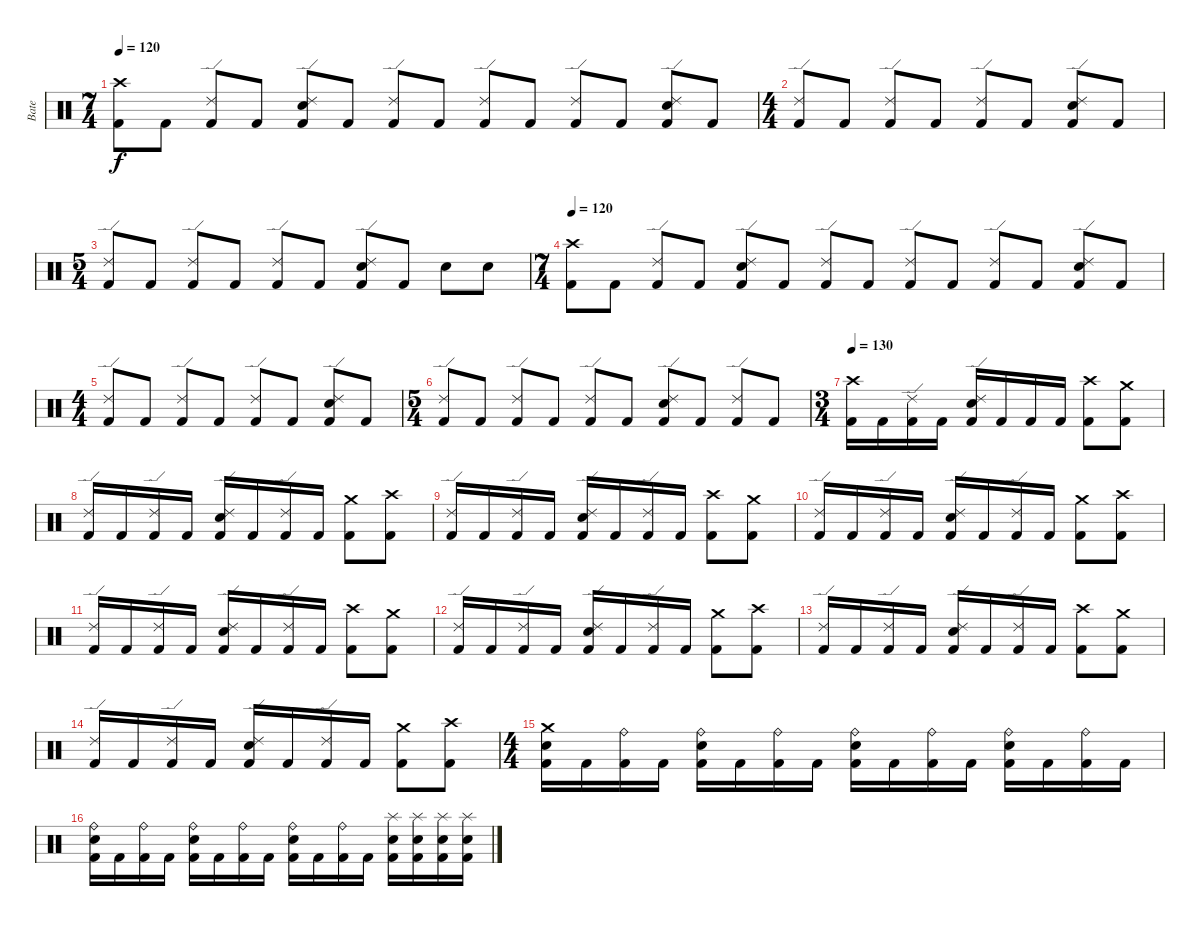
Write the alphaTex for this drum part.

\track ("Bate" "Bate") {instrument percussion}
\staff {score}
\articulation defaults
\ts (7 4)
\tempo 120
\clef neutral
\ks c
("Crash high (hit)" "Kick (hit) 2").8{dy f} "Kick (hit) 2".8 ("Ride (edge) 2" "Kick (hit) 2").8 "Kick (hit) 2".8 ("Ride (edge) 2" "Snare (hit) 2" "Kick (hit) 2").8 "Kick (hit) 2".8 ("Ride (edge) 2" "Kick (hit) 2").8 "Kick (hit) 2".8 ("Ride (edge) 2" "Kick (hit) 2").8 "Kick (hit) 2".8 ("Ride (edge) 2" "Kick (hit) 2").8 "Kick (hit) 2".8 ("Ride (edge) 2" "Snare (hit) 2" "Kick (hit) 2").8 "Kick (hit) 2".8 |
\ts (4 4)
("Ride (edge) 2" "Kick (hit) 2").8 "Kick (hit) 2".8 ("Ride (edge) 2" "Kick (hit) 2").8 "Kick (hit) 2".8 ("Ride (edge) 2" "Kick (hit) 2").8 "Kick (hit) 2".8 ("Ride (edge) 2" "Snare (hit) 2" "Kick (hit) 2").8 "Kick (hit) 2".8 |
\ts (5 4)
("Ride (edge) 2" "Kick (hit) 2").8 "Kick (hit) 2".8 ("Ride (edge) 2" "Kick (hit) 2").8 "Kick (hit) 2".8 ("Ride (edge) 2" "Kick (hit) 2").8 "Kick (hit) 2".8 ("Ride (edge) 2" "Snare (hit) 2" "Kick (hit) 2").8 "Kick (hit) 2".8 "Snare (hit) 2".8 "Snare (hit) 2".8 |
\ts (7 4)
\tempo 120
("Crash high (hit)" "Kick (hit) 2").8 "Kick (hit) 2".8 ("Ride (edge) 2" "Kick (hit) 2").8 "Kick (hit) 2".8 ("Ride (edge) 2" "Snare (hit) 2" "Kick (hit) 2").8 "Kick (hit) 2".8 ("Ride (edge) 2" "Kick (hit) 2").8 "Kick (hit) 2".8 ("Ride (edge) 2" "Kick (hit) 2").8 "Kick (hit) 2".8 ("Ride (edge) 2" "Kick (hit) 2").8 "Kick (hit) 2".8 ("Ride (edge) 2" "Snare (hit) 2" "Kick (hit) 2").8 "Kick (hit) 2".8 |
\ts (4 4)
("Ride (edge) 2" "Kick (hit) 2").8 "Kick (hit) 2".8 ("Ride (edge) 2" "Kick (hit) 2").8 "Kick (hit) 2".8 ("Ride (edge) 2" "Kick (hit) 2").8 "Kick (hit) 2".8 ("Ride (edge) 2" "Snare (hit) 2" "Kick (hit) 2").8 "Kick (hit) 2".8 |
\ts (5 4)
("Ride (edge) 2" "Kick (hit) 2").8 "Kick (hit) 2".8 ("Ride (edge) 2" "Kick (hit) 2").8 "Kick (hit) 2".8 ("Ride (edge) 2" "Kick (hit) 2").8 "Kick (hit) 2".8 ("Ride (edge) 2" "Snare (hit) 2" "Kick (hit) 2").8 "Kick (hit) 2".8 ("Ride (edge) 2" "Kick (hit) 2").8 "Kick (hit) 2".8 |
\ts (3 4)
\tempo 130
("Crash high (hit)" "Kick (hit) 2").16 "Kick (hit) 2".16 ("Ride (edge) 2" "Kick (hit) 2").16 "Kick (hit) 2".16 ("Ride (edge) 2" "Snare (hit) 2" "Kick (hit) 2").16 "Kick (hit) 2".16 "Kick (hit) 2".16 "Kick (hit) 2".16 ("Crash high (hit)" "Kick (hit) 2").8 ("Crash medium (hit)" "Kick (hit) 2").8 |
("Ride (edge) 2" "Kick (hit) 2").16 "Kick (hit) 2".16 ("Ride (edge) 2" "Kick (hit) 2").16 "Kick (hit) 2".16 ("Ride (edge) 2" "Snare (hit) 2" "Kick (hit) 2").16 "Kick (hit) 2".16 ("Ride (edge) 2" "Kick (hit) 2").16 "Kick (hit) 2".16 ("Crash medium (hit)" "Kick (hit) 2").8 ("Crash high (hit)" "Kick (hit) 2").8 |
("Ride (edge) 2" "Kick (hit) 2").16 "Kick (hit) 2".16 ("Ride (edge) 2" "Kick (hit) 2").16 "Kick (hit) 2".16 ("Ride (edge) 2" "Snare (hit) 2" "Kick (hit) 2").16 "Kick (hit) 2".16 ("Ride (edge) 2" "Kick (hit) 2").16 "Kick (hit) 2".16 ("Crash high (hit)" "Kick (hit) 2").8 ("Crash medium (hit)" "Kick (hit) 2").8 |
("Ride (edge) 2" "Kick (hit) 2").16 "Kick (hit) 2".16 ("Ride (edge) 2" "Kick (hit) 2").16 "Kick (hit) 2".16 ("Ride (edge) 2" "Snare (hit) 2" "Kick (hit) 2").16 "Kick (hit) 2".16 ("Ride (edge) 2" "Kick (hit) 2").16 "Kick (hit) 2".16 ("Crash medium (hit)" "Kick (hit) 2").8 ("Crash high (hit)" "Kick (hit) 2").8 |
("Ride (edge) 2" "Kick (hit) 2").16 "Kick (hit) 2".16 ("Ride (edge) 2" "Kick (hit) 2").16 "Kick (hit) 2".16 ("Ride (edge) 2" "Snare (hit) 2" "Kick (hit) 2").16 "Kick (hit) 2".16 ("Ride (edge) 2" "Kick (hit) 2").16 "Kick (hit) 2".16 ("Crash high (hit)" "Kick (hit) 2").8 ("Crash medium (hit)" "Kick (hit) 2").8 |
("Ride (edge) 2" "Kick (hit) 2").16 "Kick (hit) 2".16 ("Ride (edge) 2" "Kick (hit) 2").16 "Kick (hit) 2".16 ("Ride (edge) 2" "Snare (hit) 2" "Kick (hit) 2").16 "Kick (hit) 2".16 ("Ride (edge) 2" "Kick (hit) 2").16 "Kick (hit) 2".16 ("Crash medium (hit)" "Kick (hit) 2").8 ("Crash high (hit)" "Kick (hit) 2").8 |
("Ride (edge) 2" "Kick (hit) 2").16 "Kick (hit) 2".16 ("Ride (edge) 2" "Kick (hit) 2").16 "Kick (hit) 2".16 ("Ride (edge) 2" "Snare (hit) 2" "Kick (hit) 2").16 "Kick (hit) 2".16 ("Ride (edge) 2" "Kick (hit) 2").16 "Kick (hit) 2".16 ("Crash high (hit)" "Kick (hit) 2").8 ("Crash medium (hit)" "Kick (hit) 2").8 |
("Ride (edge) 2" "Kick (hit) 2").16 "Kick (hit) 2".16 ("Ride (edge) 2" "Kick (hit) 2").16 "Kick (hit) 2".16 ("Ride (edge) 2" "Snare (hit) 2" "Kick (hit) 2").16 "Kick (hit) 2".16 ("Ride (edge) 2" "Kick (hit) 2").16 "Kick (hit) 2".16 ("Crash medium (hit)" "Kick (hit) 2").8 ("Crash high (hit)" "Kick (hit) 2").8 |
\ts (4 4)
("Crash medium (hit)" "Snare (hit) 2" "Kick (hit) 2").16 "Kick (hit) 2".16 ("Ride (bell)" "Kick (hit) 2").16 "Kick (hit) 2".16 ("Ride (bell)" "Snare (hit) 2" "Kick (hit) 2").16 "Kick (hit) 2".16 ("Ride (bell)" "Kick (hit) 2").16 "Kick (hit) 2".16 ("Ride (bell)" "Snare (hit) 2" "Kick (hit) 2").16 "Kick (hit) 2".16 ("Ride (bell)" "Kick (hit) 2").16 "Kick (hit) 2".16 ("Ride (bell)" "Snare (hit) 2" "Kick (hit) 2").16 "Kick (hit) 2".16 ("Ride (bell)" "Kick (hit) 2").16 "Kick (hit) 2".16 |
("Ride (bell)" "Snare (hit) 2" "Kick (hit) 2").16 "Kick (hit) 2".16 ("Ride (bell)" "Kick (hit) 2").16 "Kick (hit) 2".16 ("Ride (bell)" "Snare (hit) 2" "Kick (hit) 2").16 "Kick (hit) 2".16 ("Ride (bell)" "Kick (hit) 2").16 "Kick (hit) 2".16 ("Ride (bell)" "Snare (hit) 2" "Kick (hit) 2").16 "Kick (hit) 2".16 ("Ride (bell)" "Kick (hit) 2").16 "Kick (hit) 2".16 ("Splash (hit)" "Snare (hit) 2" "Kick (hit) 2").16 ("Splash (hit)" "Snare (hit) 2" "Kick (hit) 2").16 ("Splash (hit)" "Snare (hit) 2" "Kick (hit) 2").16 ("Splash (hit)" "Snare (hit) 2" "Kick (hit) 2").16
